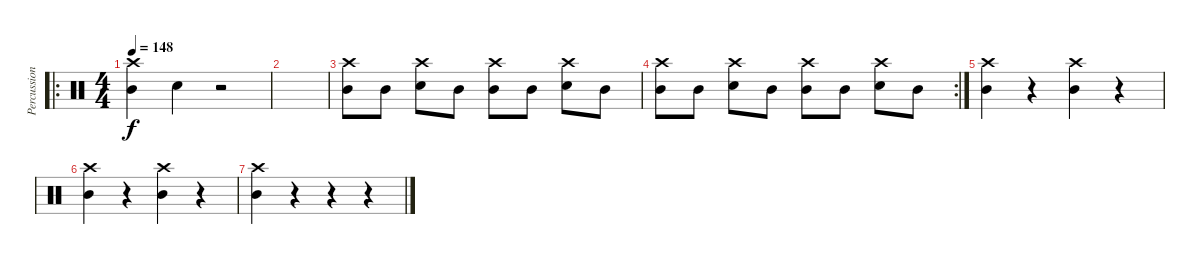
\track ("Percussion" "Percussion") {instrument percussion}
\staff {score}
\articulation defaults
\ro
\ts (4 4)
\tempo 148
\clef neutral
\ks c
("Crash high (hit)" "Mid Tom (hit)").4{dy f volume 0} "Snare (hit)".4 r.2 |
|
("Crash high (hit)" "Mid Tom (hit)").8{volume 13} "Mid Tom (hit)".8 ("Crash high (hit)" "Snare (hit) 2").8 "Mid Tom (hit)".8 ("Crash high (hit)" "Mid Tom (hit)").8 "Mid Tom (hit)".8 ("Crash high (hit)" "Snare (hit) 2").8 "Mid Tom (hit)".8 |
\rc 2
("Crash high (hit)" "Mid Tom (hit)").8 "Mid Tom (hit)".8 ("Crash high (hit)" "Snare (hit) 2").8 "Mid Tom (hit)".8 ("Crash high (hit)" "Mid Tom (hit)").8 "Mid Tom (hit)".8 ("Crash high (hit)" "Snare (hit) 2").8 "Mid Tom (hit)".8 |
("Crash high (hit)" "Mid Tom (hit)").4 r.4 ("Crash high (hit)" "Mid Tom (hit)").4 r.4 |
("Crash high (hit)" "Mid Tom (hit)").4 r.4 ("Crash high (hit)" "Mid Tom (hit)").4 r.4 |
("Crash high (hit)" "Mid Tom (hit)").4 r.4 r.4 r.4
